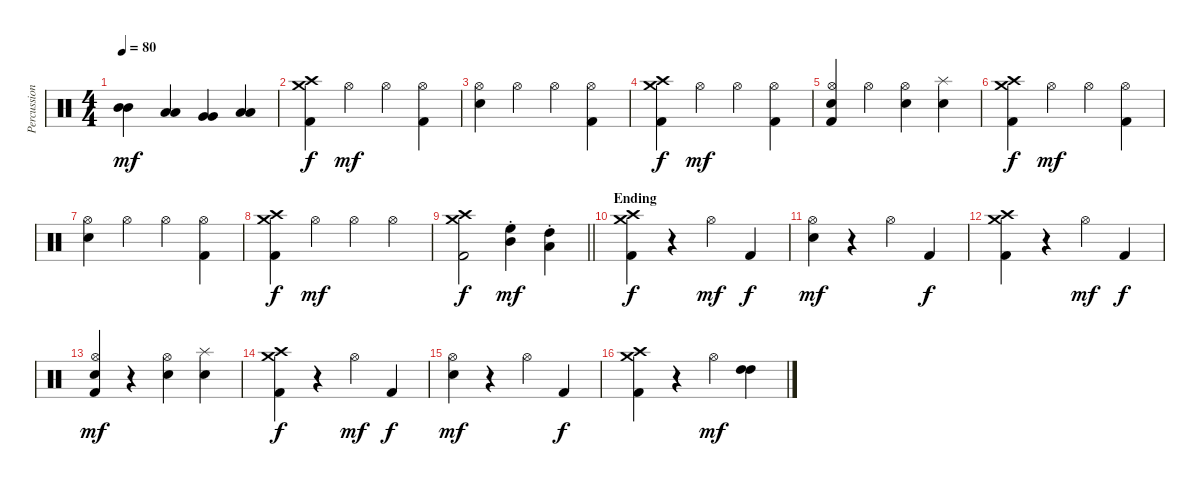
\track ("Percussioni" "Percussion") {instrument percussion}
\staff {score}
\articulation defaults
\ts (4 4)
\tempo 80
\clef neutral
\ks c
("Mid Tom (hit)" "Mid Tom (hit)").4{dy mf} ("Low Tom (hit)" "Low Tom (hit)").4 ("Very Low Tom (hit)" "Very Low Tom (hit)").4 ("Low Floor Tom (hit)" "Low Floor Tom (hit)").4 |
("Crash high (hit)" "Crash medium (hit)" "Kick (hit) 2").4{dy f} "Hi-Hat (open)".4{dy mf} "Hi-Hat (open)".4 ("Hi-Hat (open)" "Kick (hit) 2").4 |
("Hi-Hat (open)" "Snare (hit) 2").4 "Hi-Hat (open)".4 "Hi-Hat (open)".4 ("Hi-Hat (open)" "Kick (hit) 2").4 |
("Crash high (hit)" "Crash medium (hit)" "Kick (hit) 2").4{dy f} "Hi-Hat (open)".4{dy mf} "Hi-Hat (open)".4 ("Hi-Hat (open)" "Kick (hit) 2").4 |
("Hi-Hat (open)" "Snare (hit) 2" "Kick (hit) 2").4 "Hi-Hat (open)".4 ("Hi-Hat (open)" "Electric Snare (hit)").4 ("Splash (hit)" "Electric Snare (hit)").4 |
("Crash high (hit)" "Crash medium (hit)" "Kick (hit) 2").4{dy f} "Hi-Hat (open)".4{dy mf} "Hi-Hat (open)".4 ("Hi-Hat (open)" "Kick (hit) 2").4 |
("Hi-Hat (open)" "Snare (hit) 2").4 "Hi-Hat (open)".4 "Hi-Hat (open)".4 ("Hi-Hat (open)" "Kick (hit) 2").4 |
("Crash high (hit)" "Crash medium (hit)" "Kick (hit) 2").4{dy f} "Hi-Hat (open)".4{dy mf} "Hi-Hat (open)".4 "Hi-Hat (open)".4 |
\barLineRight lightlight
("Crash high (hit)" "Crash medium (hit)" "Kick (hit) 2").2{dy f} ("Mid Tom (hit)"{st} "High Floor Tom (hit)"{st}).4{dy mf} ("Low Tom (hit)"{st} "High Tom (hit)"{st}).4 |
\section ("" "Ending")
("Crash high (hit)" "Crash medium (hit)" "Kick (hit) 2").4{dy f} r.4 "Hi-Hat (open)".4{dy mf} "Kick (hit) 2".4{dy f} |
("Hi-Hat (open)" "Snare (hit) 2").4{dy mf} r.4 "Hi-Hat (open)".4 "Kick (hit) 2".4{dy f} |
("Crash high (hit)" "Crash medium (hit)" "Kick (hit) 2").4 r.4 "Hi-Hat (open)".4{dy mf} "Kick (hit) 2".4{dy f} |
("Hi-Hat (open)" "Snare (hit) 2" "Kick (hit) 2").4{dy mf} r.4 ("Hi-Hat (open)" "Snare (hit) 2").4 ("Splash (hit)" "Snare (hit) 2").4 |
("Crash high (hit)" "Crash medium (hit)" "Kick (hit) 2").4{dy f} r.4 "Hi-Hat (open)".4{dy mf} "Kick (hit) 2".4{dy f} |
("Hi-Hat (open)" "Snare (hit) 2").4{dy mf} r.4 "Hi-Hat (open)".4 "Kick (hit) 2".4{dy f} |
("Crash high (hit)" "Crash medium (hit)" "Kick (hit) 2").4 r.4 "Hi-Hat (open)".4{dy mf} ("High Tom (hit)" "High Tom (hit)").4
